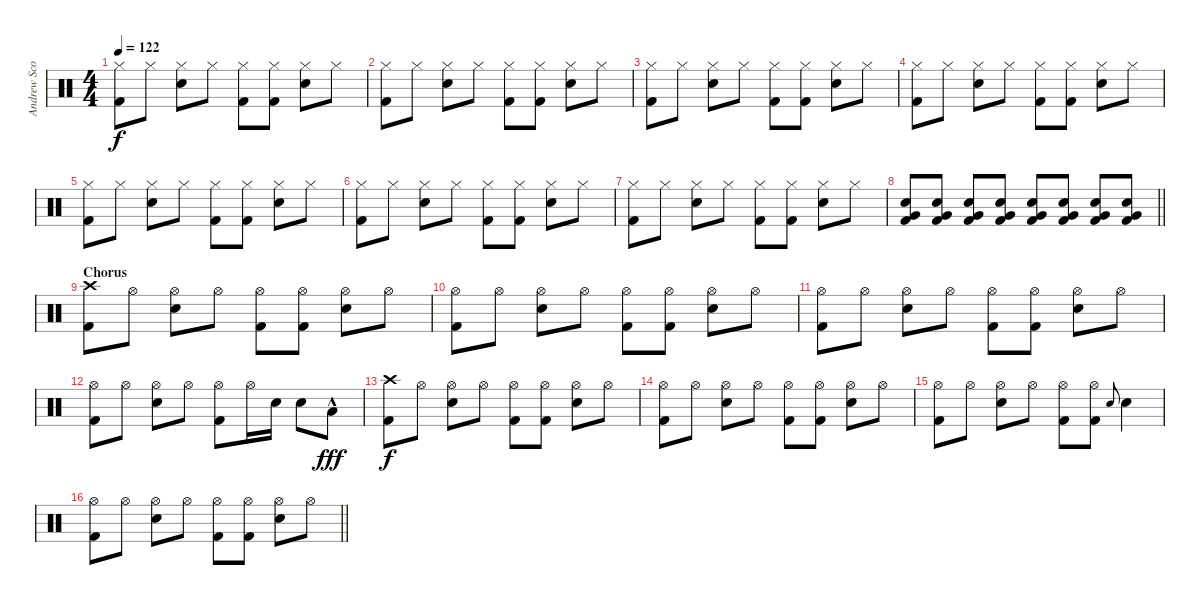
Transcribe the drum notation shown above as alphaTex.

\track ("Andrew Scott" "Andrew Sco") {instrument percussion}
\staff {score}
\articulation defaults
\ts (4 4)
\tempo 122
\clef neutral
\ks c
("Hi-Hat (closed)" "Kick (hit) 2").8{dy f} "Hi-Hat (closed)".8 ("Hi-Hat (closed)" "Snare (hit) 2").8 "Hi-Hat (closed)".8 ("Hi-Hat (closed)" "Kick (hit) 2").8 ("Hi-Hat (closed)" "Kick (hit) 2").8 ("Hi-Hat (closed)" "Snare (hit) 2").8 "Hi-Hat (closed)".8 |
("Hi-Hat (closed)" "Kick (hit) 2").8 "Hi-Hat (closed)".8 ("Hi-Hat (closed)" "Snare (hit) 2").8 "Hi-Hat (closed)".8 ("Hi-Hat (closed)" "Kick (hit) 2").8 ("Hi-Hat (closed)" "Kick (hit) 2").8 ("Hi-Hat (closed)" "Snare (hit) 2").8 "Hi-Hat (closed)".8 |
("Hi-Hat (closed)" "Kick (hit) 2").8 "Hi-Hat (closed)".8 ("Hi-Hat (closed)" "Snare (hit) 2").8 "Hi-Hat (closed)".8 ("Hi-Hat (closed)" "Kick (hit) 2").8 ("Hi-Hat (closed)" "Kick (hit) 2").8 ("Hi-Hat (closed)" "Snare (hit) 2").8 "Hi-Hat (closed)".8 |
("Hi-Hat (closed)" "Kick (hit) 2").8 "Hi-Hat (closed)".8 ("Hi-Hat (closed)" "Snare (hit) 2").8 "Hi-Hat (closed)".8 ("Hi-Hat (closed)" "Kick (hit) 2").8 ("Hi-Hat (closed)" "Kick (hit) 2").8 ("Hi-Hat (closed)" "Snare (hit) 2").8 "Hi-Hat (closed)".8 |
("Hi-Hat (closed)" "Kick (hit) 2").8 "Hi-Hat (closed)".8 ("Hi-Hat (closed)" "Snare (hit) 2").8 "Hi-Hat (closed)".8 ("Hi-Hat (closed)" "Kick (hit) 2").8 ("Hi-Hat (closed)" "Kick (hit) 2").8 ("Hi-Hat (closed)" "Snare (hit) 2").8 "Hi-Hat (closed)".8 |
("Hi-Hat (closed)" "Kick (hit) 2").8 "Hi-Hat (closed)".8 ("Hi-Hat (closed)" "Snare (hit) 2").8 "Hi-Hat (closed)".8 ("Hi-Hat (closed)" "Kick (hit) 2").8 ("Hi-Hat (closed)" "Kick (hit) 2").8 ("Hi-Hat (closed)" "Snare (hit) 2").8 "Hi-Hat (closed)".8 |
("Hi-Hat (closed)" "Kick (hit) 2").8 "Hi-Hat (closed)".8 ("Hi-Hat (closed)" "Snare (hit) 2").8 "Hi-Hat (closed)".8 ("Hi-Hat (closed)" "Kick (hit) 2").8 ("Hi-Hat (closed)" "Kick (hit) 2").8 ("Hi-Hat (closed)" "Snare (hit) 2").8 "Hi-Hat (closed)".8 |
\barLineRight lightlight
("Snare (hit) 2" "Very Low Tom (hit)" "Kick (hit) 2").8{volume 4} ("Snare (hit) 2" "Very Low Tom (hit)" "Kick (hit) 2").8{volume 13} ("Snare (hit) 2" "Very Low Tom (hit)" "Kick (hit) 2").8 ("Snare (hit) 2" "Very Low Tom (hit)" "Kick (hit) 2").8 ("Snare (hit) 2" "Very Low Tom (hit)" "Kick (hit) 2").8 ("Snare (hit) 2" "Very Low Tom (hit)" "Kick (hit) 2").8 ("Snare (hit) 2" "Very Low Tom (hit)" "Kick (hit) 2").8 ("Snare (hit) 2" "Very Low Tom (hit)" "Kick (hit) 2").8 |
\section ("" "Chorus")
("Crash high (hit)" "Kick (hit) 2").8 "Hi-Hat (open)".8 ("Hi-Hat (open)" "Snare (hit) 2").8 "Hi-Hat (open)".8 ("Hi-Hat (open)" "Kick (hit) 2").8 ("Hi-Hat (open)" "Kick (hit) 2").8 ("Hi-Hat (open)" "Snare (hit) 2").8 "Hi-Hat (open)".8 |
("Hi-Hat (open)" "Kick (hit) 2").8 "Hi-Hat (open)".8 ("Hi-Hat (open)" "Snare (hit) 2").8 "Hi-Hat (open)".8 ("Hi-Hat (open)" "Kick (hit) 2").8 ("Hi-Hat (open)" "Kick (hit) 2").8 ("Hi-Hat (open)" "Snare (hit) 2").8 "Hi-Hat (open)".8 |
("Hi-Hat (open)" "Kick (hit) 2").8 "Hi-Hat (open)".8 ("Hi-Hat (open)" "Snare (hit) 2").8 "Hi-Hat (open)".8 ("Hi-Hat (open)" "Kick (hit) 2").8 ("Hi-Hat (open)" "Kick (hit) 2").8 ("Hi-Hat (open)" "Snare (hit) 2").8 "Hi-Hat (open)".8 |
("Hi-Hat (open)" "Kick (hit) 2").8 "Hi-Hat (open)".8 ("Hi-Hat (open)" "Snare (hit) 2").8 "Hi-Hat (open)".8 ("Hi-Hat (open)" "Kick (hit) 2").8 "Hi-Hat (open)".16 "Snare (hit) 2".16 "Snare (hit) 2".8 "Low Tom (hit)"{hac}.8{dy fff} |
("Crash high (hit)" "Kick (hit) 2").8{dy f} "Hi-Hat (open)".8 ("Hi-Hat (open)" "Snare (hit) 2").8 "Hi-Hat (open)".8 ("Hi-Hat (open)" "Kick (hit) 2").8 ("Hi-Hat (open)" "Kick (hit) 2").8 ("Hi-Hat (open)" "Snare (hit) 2").8 "Hi-Hat (open)".8 |
("Hi-Hat (open)" "Kick (hit) 2").8 "Hi-Hat (open)".8 ("Hi-Hat (open)" "Snare (hit) 2").8 "Hi-Hat (open)".8 ("Hi-Hat (open)" "Kick (hit) 2").8 ("Hi-Hat (open)" "Kick (hit) 2").8 ("Hi-Hat (open)" "Snare (hit) 2").8 "Hi-Hat (open)".8 |
("Hi-Hat (open)" "Kick (hit) 2").8 "Hi-Hat (open)".8 ("Hi-Hat (open)" "Snare (hit) 2").8 "Hi-Hat (open)".8 ("Hi-Hat (open)" "Kick (hit) 2").8 ("Hi-Hat (open)" "Kick (hit) 2").8 "Snare (hit) 2".8{gr onbeat} "Snare (hit) 2".4 |
\barLineRight lightlight
("Hi-Hat (open)" "Kick (hit) 2").8 "Hi-Hat (open)".8 ("Hi-Hat (open)" "Snare (hit) 2").8 "Hi-Hat (open)".8 ("Hi-Hat (open)" "Kick (hit) 2").8 ("Hi-Hat (open)" "Kick (hit) 2").8 ("Hi-Hat (open)" "Snare (hit) 2").8 "Hi-Hat (open)".8
